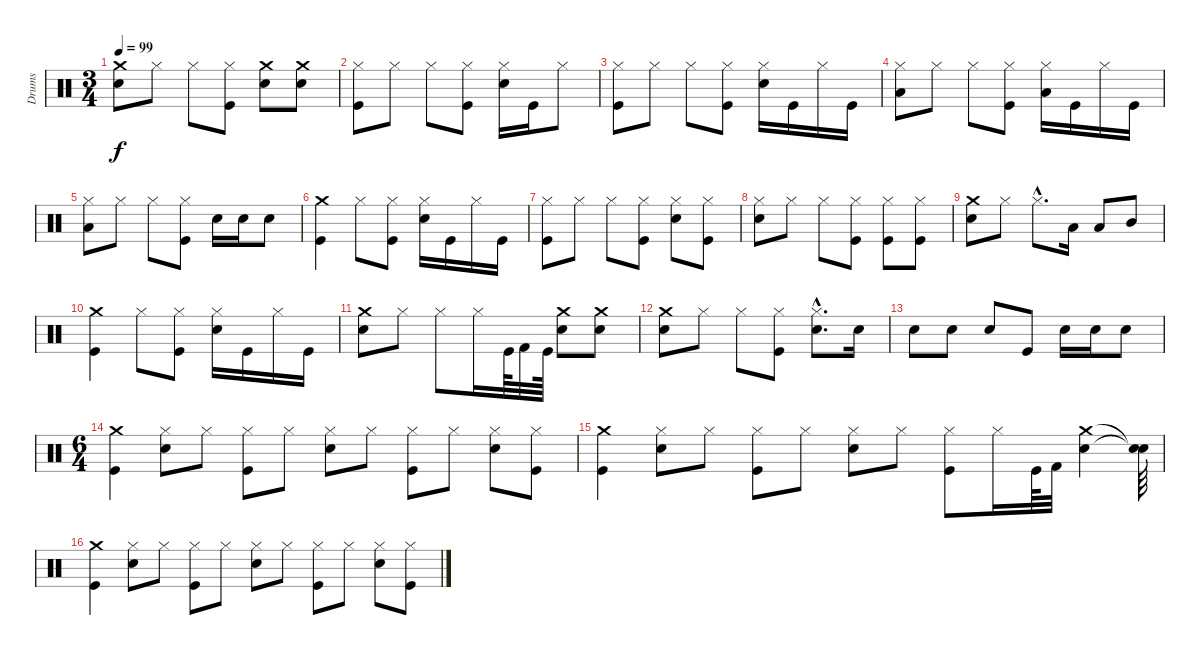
\track ("Drums" "Drums") {instrument percussion}
\staff {score}
\articulation defaults
\ts (3 4)
\tempo 99
\clef neutral
\ks c
("Crash medium (hit)" "Snare (hit) 2").8{dy f} "Hi-Hat (closed)".8 "Hi-Hat (closed)".8 ("Kick (hit)" "Hi-Hat (closed)").8 ("Crash medium (hit)" "Snare (hit) 2").8 ("Snare (hit) 2" "Crash medium (hit)").8 |
("Hi-Hat (closed)" "Kick (hit)").8 "Hi-Hat (closed)".8 "Hi-Hat (closed)".8 ("Kick (hit)" "Hi-Hat (closed)").8 ("Hi-Hat (closed)" "Snare (hit) 2").16 "Kick (hit)".16 "Hi-Hat (closed)".8 |
("Hi-Hat (closed)" "Kick (hit)").8 "Hi-Hat (closed)".8 "Hi-Hat (closed)".8 ("Kick (hit)" "Hi-Hat (closed)").8 ("Hi-Hat (closed)" "Snare (hit) 2").16 "Kick (hit)".16 "Hi-Hat (closed)".16 "Kick (hit)".16 |
("Hi-Hat (closed)" "Low Tom (hit)").8 "Hi-Hat (closed)".8 "Hi-Hat (closed)".8 ("Kick (hit)" "Hi-Hat (closed)").8 ("Hi-Hat (closed)" "Low Tom (hit)").16 "Kick (hit)".16 "Hi-Hat (closed)".16 "Kick (hit)".16 |
("Hi-Hat (closed)" "Low Tom (hit)").8 "Hi-Hat (closed)".8 "Hi-Hat (closed)".8 ("Kick (hit)" "Hi-Hat (closed)").8 "Snare (hit) 2".16 "Snare (hit) 2".16 "Snare (hit) 2".8 |
("Kick (hit)" "Crash medium (hit)").4 "Hi-Hat (closed)".8 ("Kick (hit)" "Hi-Hat (closed)").8 ("Hi-Hat (closed)" "Snare (hit) 2").16 "Kick (hit)".16 "Hi-Hat (closed)".16 "Kick (hit)".16 |
("Hi-Hat (closed)" "Kick (hit)").8 "Hi-Hat (closed)".8 "Hi-Hat (closed)".8 ("Kick (hit)" "Hi-Hat (closed)").8 ("Hi-Hat (closed)" "Snare (hit) 2").8 ("Kick (hit)" "Hi-Hat (closed)").8 |
("Hi-Hat (closed)" "Snare (hit) 2").8 "Hi-Hat (closed)".8 "Hi-Hat (closed)".8 ("Kick (hit)" "Hi-Hat (closed)").8 ("Hi-Hat (closed)" "Kick (hit)").8 ("Hi-Hat (closed)" "Kick (hit)").8 |
("Crash medium (hit)" "Snare (hit) 2").8 "Hi-Hat (closed)".8 "Hi-Hat (closed)"{hac}.8{d} "Low Tom (hit)".16 "Low Tom (hit)".8 "Mid Tom (hit)".8 |
("Crash medium (hit)" "Kick (hit)").4 "Hi-Hat (closed)".8 ("Kick (hit)" "Hi-Hat (closed)").8 ("Hi-Hat (closed)" "Snare (hit) 2").16 "Kick (hit)".16 "Hi-Hat (closed)".16 "Kick (hit)".16 |
("Crash medium (hit)" "Snare (hit) 2").8 "Hi-Hat (closed)".8 "Hi-Hat (closed)".8 "Hi-Hat (closed)".16 "Kick (hit)".64 "Kick (hit) 2".32 "Kick (hit)".64 ("Crash medium (hit)" "Snare (hit) 2").8 ("Crash medium (hit)" "Snare (hit) 2").8 |
("Crash medium (hit)" "Snare (hit) 2").8 "Hi-Hat (closed)".8 "Hi-Hat (closed)".8 ("Kick (hit)" "Hi-Hat (closed)").8 ("Hi-Hat (closed)"{hac} "Snare (hit) 2"{hac}).8{d} "Snare (hit) 2".16 |
"Snare (hit) 2".8 "Snare (hit) 2".8 "Snare (hit) 2".8 "Kick (hit)".8 "Snare (hit) 2".16 "Snare (hit) 2".16 "Snare (hit) 2".8 |
\ts (6 4)
("Kick (hit)" "Crash medium (hit)").4 ("Hi-Hat (closed)" "Snare (hit) 2").8 "Hi-Hat (closed)".8 ("Hi-Hat (closed)" "Kick (hit)").8 "Hi-Hat (closed)".8 ("Snare (hit) 2" "Hi-Hat (closed)").8 "Hi-Hat (closed)".8 ("Hi-Hat (closed)" "Kick (hit)").8 "Hi-Hat (closed)".8 ("Snare (hit) 2" "Hi-Hat (closed)").8 ("Kick (hit)" "Hi-Hat (closed)").8 |
("Crash medium (hit)" "Kick (hit)").4 ("Hi-Hat (closed)" "Snare (hit) 2").8 "Hi-Hat (closed)".8 ("Hi-Hat (closed)" "Kick (hit)").8 "Hi-Hat (closed)".8 ("Snare (hit) 2" "Hi-Hat (closed)").8 "Hi-Hat (closed)".8 ("Hi-Hat (closed)" "Kick (hit)").8 "Hi-Hat (closed)".16 "Kick (hit)".64 "Kick (hit) 2".32 ("Crash medium (hit)" "Snare (hit) 2").4 ("Snare (hit)"{t} "Snare (hit)"{t}).64 |
("Kick (hit)" "Crash medium (hit)").4 ("Snare (hit) 2" "Hi-Hat (closed)").8 "Hi-Hat (closed)".8 ("Hi-Hat (closed)" "Kick (hit)").8 "Hi-Hat (closed)".8 ("Snare (hit) 2" "Hi-Hat (closed)").8 "Hi-Hat (closed)".8 ("Hi-Hat (closed)" "Kick (hit)").8 "Hi-Hat (closed)".8 ("Snare (hit) 2" "Hi-Hat (closed)").8 ("Kick (hit)" "Hi-Hat (closed)").8
